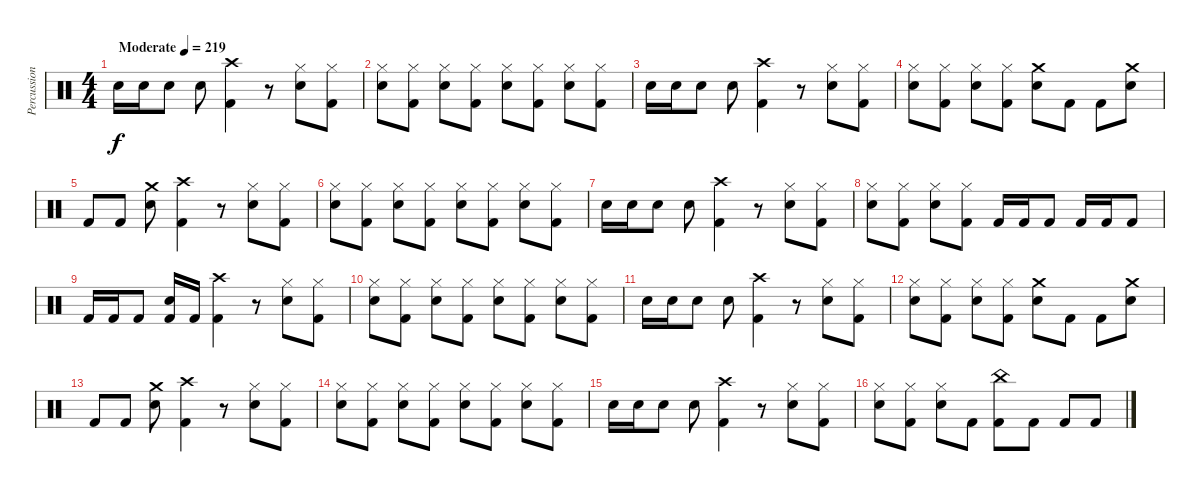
\track ("Percussion" "Percussion") {instrument percussion}
\staff {score}
\articulation defaults
\ts (4 4)
\tempo (219 "Moderate")
\clef neutral
\ks c "Electric Snare (hit)".16{dy f} "Electric Snare (hit)".16 "Electric Snare (hit)".8 "Electric Snare (hit)".8
("Crash high (hit)" "Kick (hit) 2").4 r.8 ("Hi-Hat (closed)" "Electric Snare (hit)").8 ("Hi-Hat (closed)" "Kick (hit) 2").8 |
("Hi-Hat (closed)" "Electric Snare (hit)").8 ("Hi-Hat (closed)" "Kick (hit) 2").8 ("Hi-Hat (closed)" "Electric Snare (hit)").8 ("Hi-Hat (closed)" "Kick (hit) 2").8 ("Hi-Hat (closed)" "Electric Snare (hit)").8 ("Hi-Hat (closed)" "Kick (hit) 2").8 ("Hi-Hat (closed)" "Electric Snare (hit)").8 ("Hi-Hat (closed)" "Kick (hit) 2").8 |
"Electric Snare (hit)".16 "Electric Snare (hit)".16 "Electric Snare (hit)".8 "Electric Snare (hit)".8 ("Crash high (hit)" "Kick (hit) 2").4 r.8 ("Hi-Hat (closed)" "Electric Snare (hit)").8 ("Hi-Hat (closed)" "Kick (hit) 2").8 |
("Hi-Hat (closed)" "Electric Snare (hit)").8 ("Hi-Hat (closed)" "Kick (hit) 2").8 ("Hi-Hat (closed)" "Electric Snare (hit)").8 ("Hi-Hat (closed)" "Kick (hit) 2").8 ("Crash medium (hit)" "Electric Snare (hit)").8 "Kick (hit) 2".8 "Kick (hit) 2".8 ("Crash medium (hit)" "Electric Snare (hit)").8 |
"Kick (hit) 2".8 "Kick (hit) 2".8 ("Crash medium (hit)" "Electric Snare (hit)").8 ("Crash high (hit)" "Kick (hit) 2").4 r.8 ("Hi-Hat (closed)" "Electric Snare (hit)").8 ("Hi-Hat (closed)" "Kick (hit) 2").8 |
("Hi-Hat (closed)" "Electric Snare (hit)").8 ("Hi-Hat (closed)" "Kick (hit) 2").8 ("Hi-Hat (closed)" "Electric Snare (hit)").8 ("Hi-Hat (closed)" "Kick (hit) 2").8 ("Hi-Hat (closed)" "Electric Snare (hit)").8 ("Hi-Hat (closed)" "Kick (hit) 2").8 ("Hi-Hat (closed)" "Electric Snare (hit)").8 ("Hi-Hat (closed)" "Kick (hit) 2").8 |
"Electric Snare (hit)".16 "Electric Snare (hit)".16 "Electric Snare (hit)".8 "Electric Snare (hit)".8 ("Crash high (hit)" "Kick (hit) 2").4 r.8 ("Hi-Hat (closed)" "Electric Snare (hit)").8 ("Hi-Hat (closed)" "Kick (hit) 2").8 |
("Hi-Hat (closed)" "Electric Snare (hit)").8 ("Hi-Hat (closed)" "Kick (hit) 2").8 ("Hi-Hat (closed)" "Electric Snare (hit)").8 ("Hi-Hat (closed)" "Kick (hit) 2").8 "Kick (hit) 2".16 "Kick (hit) 2".16 "Kick (hit) 2".8 "Kick (hit) 2".16 "Kick (hit) 2".16 "Kick (hit) 2".8 |
"Kick (hit) 2".16 "Kick (hit) 2".16 "Kick (hit) 2".8 ("Electric Snare (hit)" "Kick (hit) 2").16 "Kick (hit) 2".16 ("Crash high (hit)" "Kick (hit) 2").4 r.8 ("Hi-Hat (closed)" "Electric Snare (hit)").8 ("Hi-Hat (closed)" "Kick (hit) 2").8 |
("Hi-Hat (closed)" "Electric Snare (hit)").8 ("Hi-Hat (closed)" "Kick (hit) 2").8 ("Hi-Hat (closed)" "Electric Snare (hit)").8 ("Hi-Hat (closed)" "Kick (hit) 2").8 ("Hi-Hat (closed)" "Electric Snare (hit)").8 ("Hi-Hat (closed)" "Kick (hit) 2").8 ("Hi-Hat (closed)" "Electric Snare (hit)").8 ("Hi-Hat (closed)" "Kick (hit) 2").8 |
"Electric Snare (hit)".16 "Electric Snare (hit)".16 "Electric Snare (hit)".8 "Electric Snare (hit)".8 ("Crash high (hit)" "Kick (hit) 2").4 r.8 ("Hi-Hat (closed)" "Electric Snare (hit)").8 ("Hi-Hat (closed)" "Kick (hit) 2").8 |
("Hi-Hat (closed)" "Electric Snare (hit)").8 ("Hi-Hat (closed)" "Kick (hit) 2").8 ("Hi-Hat (closed)" "Electric Snare (hit)").8 ("Hi-Hat (closed)" "Kick (hit) 2").8 ("Crash medium (hit)" "Electric Snare (hit)").8 "Kick (hit) 2".8 "Kick (hit) 2".8 ("Crash medium (hit)" "Electric Snare (hit)").8 |
"Kick (hit) 2".8 "Kick (hit) 2".8 ("Crash medium (hit)" "Electric Snare (hit)").8 ("Crash high (hit)" "Kick (hit) 2").4 r.8 ("Hi-Hat (closed)" "Electric Snare (hit)").8 ("Hi-Hat (closed)" "Kick (hit) 2").8 |
("Hi-Hat (closed)" "Electric Snare (hit)").8 ("Hi-Hat (closed)" "Kick (hit) 2").8 ("Hi-Hat (closed)" "Electric Snare (hit)").8 ("Hi-Hat (closed)" "Kick (hit) 2").8 ("Hi-Hat (closed)" "Electric Snare (hit)").8 ("Hi-Hat (closed)" "Kick (hit) 2").8 ("Hi-Hat (closed)" "Electric Snare (hit)").8 ("Hi-Hat (closed)" "Kick (hit) 2").8 |
"Electric Snare (hit)".16 "Electric Snare (hit)".16 "Electric Snare (hit)".8 "Electric Snare (hit)".8 ("Crash high (hit)" "Kick (hit) 2").4 r.8 ("Hi-Hat (closed)" "Electric Snare (hit)").8 ("Hi-Hat (closed)" "Kick (hit) 2").8 |
("Hi-Hat (closed)" "Electric Snare (hit)").8 ("Hi-Hat (closed)" "Kick (hit) 2").8 ("Hi-Hat (closed)" "Electric Snare (hit)").8 "Kick (hit) 2".8 ("China (hit)" "Kick (hit) 2").8 "Kick (hit) 2".8 "Kick (hit) 2".8 "Kick (hit) 2".8
